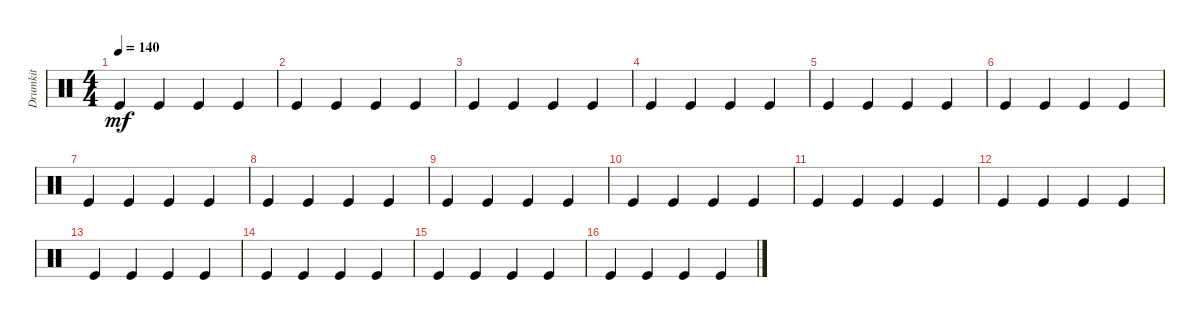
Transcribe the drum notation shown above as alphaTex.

\track ("Drumkit" "Drumkit") {instrument percussion}
\staff {score}
\articulation defaults
\ts (4 4)
\tempo 140
\clef neutral
\ks c "Kick (hit)".4{dy mf} "Kick (hit)".4 "Kick (hit)".4 "Kick (hit)".4
|
"Kick (hit)".4 "Kick (hit)".4 "Kick (hit)".4 "Kick (hit)".4 |
"Kick (hit)".4 "Kick (hit)".4 "Kick (hit)".4 "Kick (hit)".4 |
"Kick (hit)".4 "Kick (hit)".4 "Kick (hit)".4 "Kick (hit)".4 |
"Kick (hit)".4 "Kick (hit)".4 "Kick (hit)".4 "Kick (hit)".4 |
"Kick (hit)".4 "Kick (hit)".4 "Kick (hit)".4 "Kick (hit)".4 |
"Kick (hit)".4 "Kick (hit)".4 "Kick (hit)".4 "Kick (hit)".4 |
"Kick (hit)".4 "Kick (hit)".4 "Kick (hit)".4 "Kick (hit)".4 |
"Kick (hit)".4 "Kick (hit)".4 "Kick (hit)".4 "Kick (hit)".4 |
"Kick (hit)".4 "Kick (hit)".4 "Kick (hit)".4 "Kick (hit)".4 |
"Kick (hit)".4 "Kick (hit)".4 "Kick (hit)".4 "Kick (hit)".4 |
"Kick (hit)".4 "Kick (hit)".4 "Kick (hit)".4 "Kick (hit)".4 |
"Kick (hit)".4 "Kick (hit)".4 "Kick (hit)".4 "Kick (hit)".4 |
"Kick (hit)".4 "Kick (hit)".4 "Kick (hit)".4 "Kick (hit)".4 |
"Kick (hit)".4 "Kick (hit)".4 "Kick (hit)".4 "Kick (hit)".4 |
"Kick (hit)".4 "Kick (hit)".4 "Kick (hit)".4 "Kick (hit)".4
